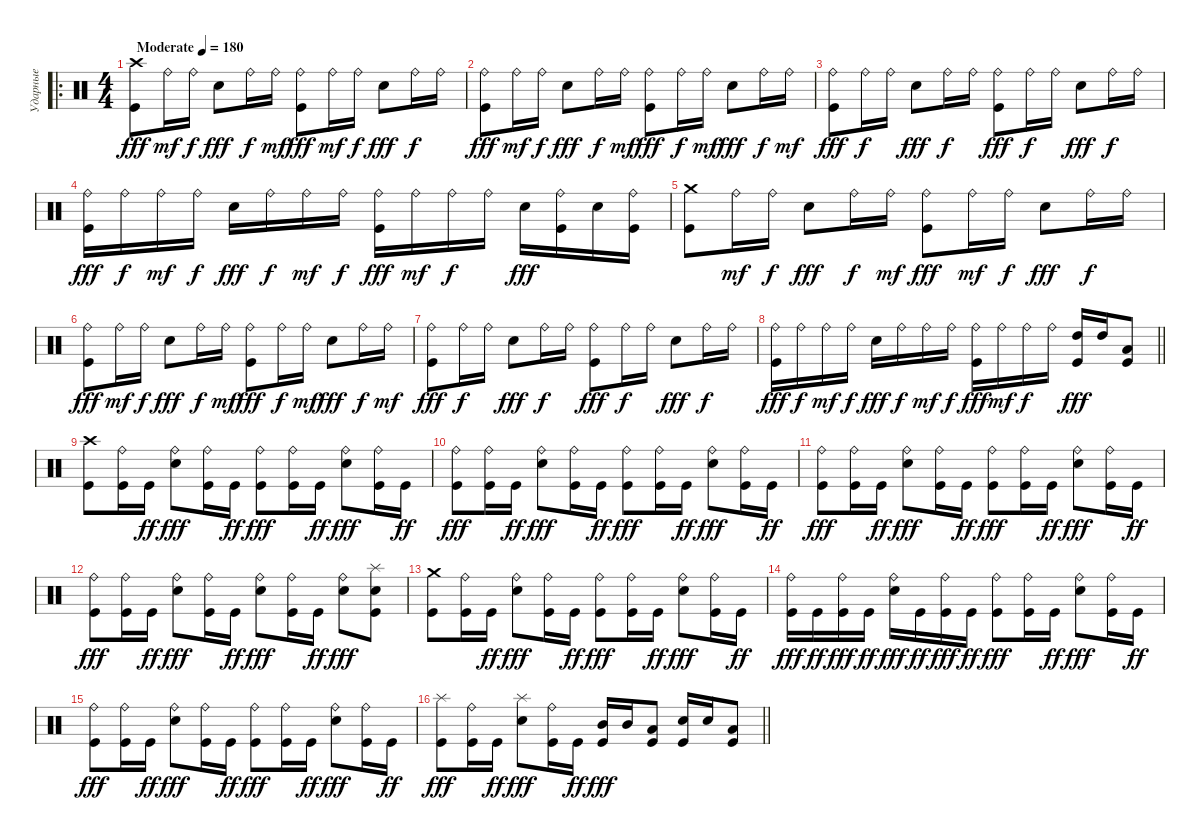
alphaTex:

\track ("Ударные" "Ударные") {instrument percussion}
\staff {score}
\articulation defaults
\ro
\ts (4 4)
\tempo (180 "Moderate")
\clef neutral
\ks c
("Crash high (hit)" "Kick (hit)").8{dy fff} "Ride (bell)".16{dy mf} "Ride (bell)".16{dy f} "Electric Snare (hit)".8{dy fff} "Ride (bell)".16{dy f} "Ride (bell)".16{dy mf} ("Ride (bell)" "Kick (hit)").8{dy fff} "Ride (bell)".16{dy mf} "Ride (bell)".16{dy f} "Electric Snare (hit)".8{dy fff} "Ride (bell)".16{dy f} "Ride (bell)".16 |
("Ride (bell)" "Kick (hit)").8{dy fff} "Ride (bell)".16{dy mf} "Ride (bell)".16{dy f} "Electric Snare (hit)".8{dy fff} "Ride (bell)".16{dy f} "Ride (bell)".16{dy mf} ("Ride (bell)" "Kick (hit)").8{dy fff} "Ride (bell)".16{dy f} "Ride (bell)".16{dy mf} "Electric Snare (hit)".8{dy fff} "Ride (bell)".16{dy f} "Ride (bell)".16{dy mf} |
("Ride (bell)" "Kick (hit)").8{dy fff} "Ride (bell)".16{dy f} "Ride (bell)".16 "Electric Snare (hit)".8{dy fff} "Ride (bell)".16{dy f} "Ride (bell)".16 ("Ride (bell)" "Kick (hit)").8{dy fff} "Ride (bell)".16{dy f} "Ride (bell)".16 "Electric Snare (hit)".8{dy fff} "Ride (bell)".16{dy f} "Ride (bell)".16 |
("Ride (bell)" "Kick (hit)").16{dy fff} "Ride (bell)".16{dy f} "Ride (bell)".16{dy mf} "Ride (bell)".16{dy f} "Electric Snare (hit)".16{dy fff} "Ride (bell)".16{dy f} "Ride (bell)".16{dy mf} "Ride (bell)".16{dy f} ("Ride (bell)" "Kick (hit)").16{dy fff} "Ride (bell)".16{dy mf} "Ride (bell)".16{dy f} "Ride (bell)".16 "Electric Snare (hit)".16{dy fff} ("Ride (bell)" "Kick (hit)").16 "Electric Snare (hit)".16 ("Ride (bell)" "Kick (hit)").16 |
("Crash medium (hit)" "Kick (hit)").8 "Ride (bell)".16{dy mf} "Ride (bell)".16{dy f} "Electric Snare (hit)".8{dy fff} "Ride (bell)".16{dy f} "Ride (bell)".16{dy mf} ("Ride (bell)" "Kick (hit)").8{dy fff} "Ride (bell)".16{dy mf} "Ride (bell)".16{dy f} "Electric Snare (hit)".8{dy fff} "Ride (bell)".16{dy f} "Ride (bell)".16 |
("Ride (bell)" "Kick (hit)").8{dy fff} "Ride (bell)".16{dy mf} "Ride (bell)".16{dy f} "Electric Snare (hit)".8{dy fff} "Ride (bell)".16{dy f} "Ride (bell)".16{dy mf} ("Ride (bell)" "Kick (hit)").8{dy fff} "Ride (bell)".16{dy f} "Ride (bell)".16{dy mf} "Electric Snare (hit)".8{dy fff} "Ride (bell)".16{dy f} "Ride (bell)".16{dy mf} |
("Ride (bell)" "Kick (hit)").8{dy fff} "Ride (bell)".16{dy f} "Ride (bell)".16 "Electric Snare (hit)".8{dy fff} "Ride (bell)".16{dy f} "Ride (bell)".16 ("Ride (bell)" "Kick (hit)").8{dy fff} "Ride (bell)".16{dy f} "Ride (bell)".16 "Electric Snare (hit)".8{dy fff} "Ride (bell)".16{dy f} "Ride (bell)".16 |
\barLineRight lightlight
("Ride (bell)" "Kick (hit)").16{dy fff} "Ride (bell)".16{dy f} "Ride (bell)".16{dy mf} "Ride (bell)".16{dy f} "Electric Snare (hit)".16{dy fff} "Ride (bell)".16{dy f} "Ride (bell)".16{dy mf} "Ride (bell)".16{dy f} ("Ride (bell)" "Kick (hit)").16{dy fff} "Ride (bell)".16{dy mf} "Ride (bell)".16{dy f} "Ride (bell)".16 ("High Tom (hit)" "Kick (hit)").16{dy fff} "High Tom (hit)".16 ("Low Tom (hit)" "Kick (hit)").8 |
("Crash high (hit)" "Kick (hit)").8 ("Ride (bell)" "Kick (hit)").16 "Kick (hit)".16{dy ff} ("Ride (bell)" "Electric Snare (hit)").8{dy fff} ("Ride (bell)" "Kick (hit)").16 "Kick (hit)".16{dy ff} ("Ride (bell)" "Kick (hit)").8{dy fff} ("Ride (bell)" "Kick (hit)").16 "Kick (hit)".16{dy ff} ("Ride (bell)" "Electric Snare (hit)").8{dy fff} ("Ride (bell)" "Kick (hit)").16 "Kick (hit)".16{dy ff} |
("Ride (bell)" "Kick (hit)").8{dy fff} ("Ride (bell)" "Kick (hit)").16 "Kick (hit)".16{dy ff} ("Ride (bell)" "Electric Snare (hit)").8{dy fff} ("Ride (bell)" "Kick (hit)").16 "Kick (hit)".16{dy ff} ("Ride (bell)" "Kick (hit)").8{dy fff} ("Ride (bell)" "Kick (hit)").16 "Kick (hit)".16{dy ff} ("Ride (bell)" "Electric Snare (hit)").8{dy fff} ("Ride (bell)" "Kick (hit)").16 "Kick (hit)".16{dy ff} |
("Ride (bell)" "Kick (hit)").8{dy fff} ("Ride (bell)" "Kick (hit)").16 "Kick (hit)".16{dy ff} ("Ride (bell)" "Electric Snare (hit)").8{dy fff} ("Ride (bell)" "Kick (hit)").16 "Kick (hit)".16{dy ff} ("Ride (bell)" "Kick (hit)").8{dy fff} ("Ride (bell)" "Kick (hit)").16 "Kick (hit)".16{dy ff} ("Ride (bell)" "Electric Snare (hit)").8{dy fff} ("Ride (bell)" "Kick (hit)").16 "Kick (hit)".16{dy ff} |
("Ride (bell)" "Kick (hit)").8{dy fff} ("Ride (bell)" "Kick (hit)").16 "Kick (hit)".16{dy ff} ("Ride (bell)" "Electric Snare (hit)").8{dy fff} ("Ride (bell)" "Kick (hit)").16 "Kick (hit)".16{dy ff} ("Ride (bell)" "Electric Snare (hit)").8{dy fff} ("Ride (bell)" "Kick (hit)").16 "Kick (hit)".16{dy ff} ("Ride (bell)" "Electric Snare (hit)").8{dy fff} ("Splash (hit)" "Electric Snare (hit)" "Kick (hit)").8 |
("Crash medium (hit)" "Kick (hit)").8 ("Ride (bell)" "Kick (hit)").16 "Kick (hit)".16{dy ff} ("Ride (bell)" "Electric Snare (hit)").8{dy fff} ("Ride (bell)" "Kick (hit)").16 "Kick (hit)".16{dy ff} ("Ride (bell)" "Kick (hit)").8{dy fff} ("Ride (bell)" "Kick (hit)").16 "Kick (hit)".16{dy ff} ("Ride (bell)" "Electric Snare (hit)").8{dy fff} ("Ride (bell)" "Kick (hit)").16 "Kick (hit)".16{dy ff} |
("Ride (bell)" "Kick (hit)").16{dy fff} "Kick (hit)".16{dy ff} ("Ride (bell)" "Kick (hit)").16{dy fff} "Kick (hit)".16{dy ff} ("Ride (bell)" "Electric Snare (hit)").16{dy fff} "Kick (hit)".16{dy ff} ("Ride (bell)" "Kick (hit)").16{dy fff} "Kick (hit)".16{dy ff} ("Ride (bell)" "Kick (hit)").8{dy fff} ("Ride (bell)" "Kick (hit)").16 "Kick (hit)".16{dy ff} ("Ride (bell)" "Electric Snare (hit)").8{dy fff} ("Ride (bell)" "Kick (hit)").16 "Kick (hit)".16{dy ff} |
("Ride (bell)" "Kick (hit)").8{dy fff} ("Ride (bell)" "Kick (hit)").16 "Kick (hit)".16{dy ff} ("Ride (bell)" "Electric Snare (hit)").8{dy fff} ("Ride (bell)" "Kick (hit)").16 "Kick (hit)".16{dy ff} ("Ride (bell)" "Kick (hit)").8{dy fff} ("Ride (bell)" "Kick (hit)").16 "Kick (hit)".16{dy ff} ("Ride (bell)" "Electric Snare (hit)").8{dy fff} ("Ride (bell)" "Kick (hit)").16 "Kick (hit)".16{dy ff} |
\barLineRight lightlight
("Splash (hit)" "Kick (hit)").8{dy fff} ("Ride (bell)" "Kick (hit)").16 "Kick (hit)".16{dy ff} ("Splash (hit)" "Electric Snare (hit)").8{dy fff} ("Ride (bell)" "Kick (hit)").16 "Kick (hit)".16{dy ff} ("Mid Tom (hit)" "Kick (hit)").16{dy fff} "Mid Tom (hit)".16 ("Low Tom (hit)" "Kick (hit)").8 ("Electric Snare (hit)" "Kick (hit)").16 "Electric Snare (hit)".16 ("Low Tom (hit)" "Kick (hit)").8
